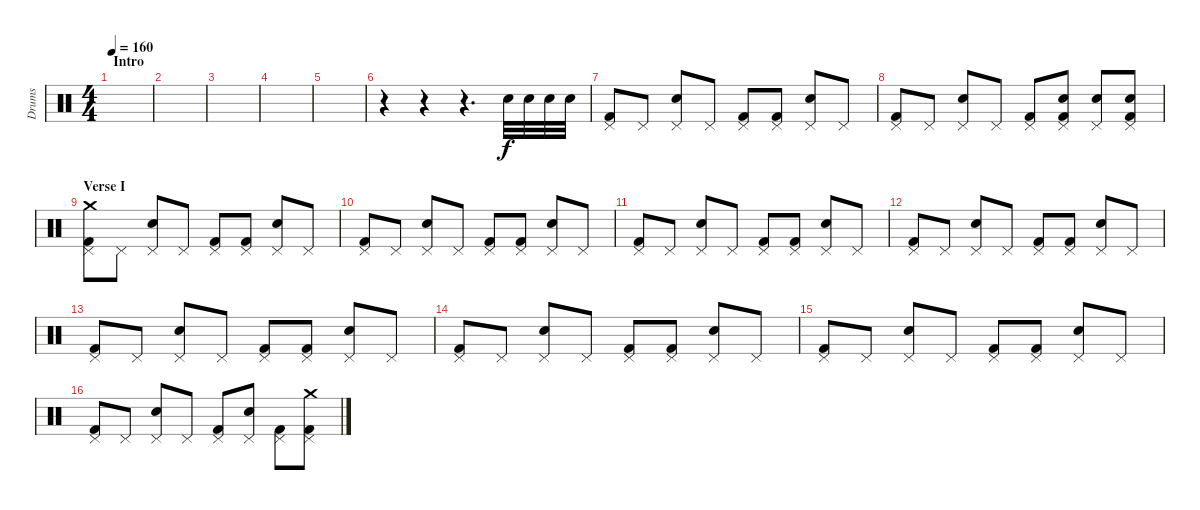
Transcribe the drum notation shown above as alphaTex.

\track ("Drums" "Drums") {instrument percussion}
\staff {score}
\articulation defaults
\ts (4 4)
\section ("" "Intro")
\tempo 160
\clef neutral
\ks c
|
|
|
|
|
r.4 r.4 r.4{d} "Snare (hit) 2".32 "Snare (hit) 2".32 "Snare (hit) 2".32 "Snare (hit) 2".32 |
("Kick (hit) 2" "Pedal Hi-Hat (hit)").8 "Pedal Hi-Hat (hit)".8 ("Electric Snare (hit)" "Pedal Hi-Hat (hit)").8 "Pedal Hi-Hat (hit)".8 ("Kick (hit) 2" "Pedal Hi-Hat (hit)").8 ("Kick (hit) 2" "Pedal Hi-Hat (hit)").8 ("Electric Snare (hit)" "Pedal Hi-Hat (hit)").8 "Pedal Hi-Hat (hit)".8 |
("Kick (hit) 2" "Pedal Hi-Hat (hit)").8 "Pedal Hi-Hat (hit)".8 ("Electric Snare (hit)" "Pedal Hi-Hat (hit)").8 "Pedal Hi-Hat (hit)".8 ("Kick (hit) 2" "Pedal Hi-Hat (hit)").8 ("Kick (hit) 2" "Pedal Hi-Hat (hit)" "Electric Snare (hit)").8 ("Electric Snare (hit)" "Pedal Hi-Hat (hit)").8 ("Kick (hit) 2" "Pedal Hi-Hat (hit)" "Electric Snare (hit)").8 |
\section ("" "Verse I")
("Kick (hit) 2" "Pedal Hi-Hat (hit)" "Crash medium (hit)").8 "Pedal Hi-Hat (hit)".8 ("Electric Snare (hit)" "Pedal Hi-Hat (hit)").8 "Pedal Hi-Hat (hit)".8 ("Kick (hit) 2" "Pedal Hi-Hat (hit)").8 ("Kick (hit) 2" "Pedal Hi-Hat (hit)").8 ("Electric Snare (hit)" "Pedal Hi-Hat (hit)").8 "Pedal Hi-Hat (hit)".8 |
("Kick (hit) 2" "Pedal Hi-Hat (hit)").8 "Pedal Hi-Hat (hit)".8 ("Electric Snare (hit)" "Pedal Hi-Hat (hit)").8 "Pedal Hi-Hat (hit)".8 ("Kick (hit) 2" "Pedal Hi-Hat (hit)").8 ("Kick (hit) 2" "Pedal Hi-Hat (hit)").8 ("Electric Snare (hit)" "Pedal Hi-Hat (hit)").8 "Pedal Hi-Hat (hit)".8 |
("Kick (hit) 2" "Pedal Hi-Hat (hit)").8 "Pedal Hi-Hat (hit)".8 ("Electric Snare (hit)" "Pedal Hi-Hat (hit)").8 "Pedal Hi-Hat (hit)".8 ("Kick (hit) 2" "Pedal Hi-Hat (hit)").8 ("Kick (hit) 2" "Pedal Hi-Hat (hit)").8 ("Electric Snare (hit)" "Pedal Hi-Hat (hit)").8 "Pedal Hi-Hat (hit)".8 |
("Kick (hit) 2" "Pedal Hi-Hat (hit)").8 "Pedal Hi-Hat (hit)".8 ("Electric Snare (hit)" "Pedal Hi-Hat (hit)").8 "Pedal Hi-Hat (hit)".8 ("Kick (hit) 2" "Pedal Hi-Hat (hit)").8 ("Kick (hit) 2" "Pedal Hi-Hat (hit)").8 ("Electric Snare (hit)" "Pedal Hi-Hat (hit)").8 "Pedal Hi-Hat (hit)".8 |
("Kick (hit) 2" "Pedal Hi-Hat (hit)").8 "Pedal Hi-Hat (hit)".8 ("Electric Snare (hit)" "Pedal Hi-Hat (hit)").8 "Pedal Hi-Hat (hit)".8 ("Kick (hit) 2" "Pedal Hi-Hat (hit)").8 ("Kick (hit) 2" "Pedal Hi-Hat (hit)").8 ("Electric Snare (hit)" "Pedal Hi-Hat (hit)").8 "Pedal Hi-Hat (hit)".8 |
("Kick (hit) 2" "Pedal Hi-Hat (hit)").8 "Pedal Hi-Hat (hit)".8 ("Electric Snare (hit)" "Pedal Hi-Hat (hit)").8 "Pedal Hi-Hat (hit)".8 ("Kick (hit) 2" "Pedal Hi-Hat (hit)").8 ("Kick (hit) 2" "Pedal Hi-Hat (hit)").8 ("Electric Snare (hit)" "Pedal Hi-Hat (hit)").8 "Pedal Hi-Hat (hit)".8 |
("Kick (hit) 2" "Pedal Hi-Hat (hit)").8 "Pedal Hi-Hat (hit)".8 ("Electric Snare (hit)" "Pedal Hi-Hat (hit)").8 "Pedal Hi-Hat (hit)".8 ("Kick (hit) 2" "Pedal Hi-Hat (hit)").8 ("Kick (hit) 2" "Pedal Hi-Hat (hit)").8 ("Electric Snare (hit)" "Pedal Hi-Hat (hit)").8 "Pedal Hi-Hat (hit)".8 |
("Kick (hit) 2" "Pedal Hi-Hat (hit)").8 "Pedal Hi-Hat (hit)".8 ("Electric Snare (hit)" "Pedal Hi-Hat (hit)").8 "Pedal Hi-Hat (hit)".8 ("Kick (hit) 2" "Pedal Hi-Hat (hit)").8 ("Pedal Hi-Hat (hit)" "Electric Snare (hit)").8 ("Kick (hit) 2" "Pedal Hi-Hat (hit)").8 ("Kick (hit) 2" "Pedal Hi-Hat (hit)" "Crash medium (hit)").8
